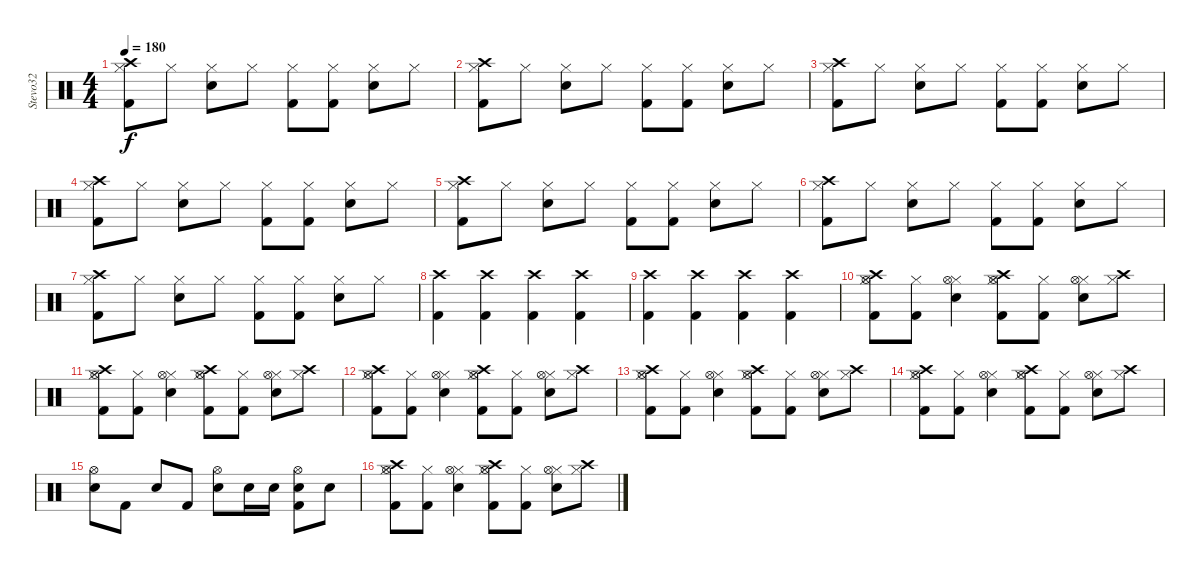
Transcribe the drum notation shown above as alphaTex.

\track ("Stevo32" "Stevo32") {instrument percussion}
\staff {score}
\articulation defaults
\ts (4 4)
\tempo 180
\clef neutral
\ks c
("Hi-Hat (closed)" "Kick (hit) 2" "Crash high (hit)").8{dy f} "Hi-Hat (closed)".8 ("Hi-Hat (closed)" "Electric Snare (hit)").8 "Hi-Hat (closed)".8 ("Hi-Hat (closed)" "Kick (hit) 2").8 ("Hi-Hat (closed)" "Kick (hit) 2").8 ("Hi-Hat (closed)" "Electric Snare (hit)").8 "Hi-Hat (closed)".8 |
("Hi-Hat (closed)" "Kick (hit) 2" "Crash high (hit)").8 "Hi-Hat (closed)".8 ("Hi-Hat (closed)" "Electric Snare (hit)").8 "Hi-Hat (closed)".8 ("Hi-Hat (closed)" "Kick (hit) 2").8 ("Hi-Hat (closed)" "Kick (hit) 2").8 ("Hi-Hat (closed)" "Electric Snare (hit)").8 "Hi-Hat (closed)".8 |
("Hi-Hat (closed)" "Kick (hit) 2" "Crash high (hit)").8 "Hi-Hat (closed)".8 ("Hi-Hat (closed)" "Electric Snare (hit)").8 "Hi-Hat (closed)".8 ("Hi-Hat (closed)" "Kick (hit) 2").8 ("Hi-Hat (closed)" "Kick (hit) 2").8 ("Hi-Hat (closed)" "Electric Snare (hit)").8 "Hi-Hat (closed)".8 |
("Hi-Hat (closed)" "Kick (hit) 2" "Crash high (hit)").8 "Hi-Hat (closed)".8 ("Hi-Hat (closed)" "Electric Snare (hit)").8 "Hi-Hat (closed)".8 ("Hi-Hat (closed)" "Kick (hit) 2").8 ("Hi-Hat (closed)" "Kick (hit) 2").8 ("Hi-Hat (closed)" "Electric Snare (hit)").8 "Hi-Hat (closed)".8 |
("Hi-Hat (closed)" "Kick (hit) 2" "Crash high (hit)").8 "Hi-Hat (closed)".8 ("Hi-Hat (closed)" "Electric Snare (hit)").8 "Hi-Hat (closed)".8 ("Hi-Hat (closed)" "Kick (hit) 2").8 ("Hi-Hat (closed)" "Kick (hit) 2").8 ("Hi-Hat (closed)" "Electric Snare (hit)").8 "Hi-Hat (closed)".8 |
("Hi-Hat (closed)" "Kick (hit) 2" "Crash high (hit)").8 "Hi-Hat (closed)".8 ("Hi-Hat (closed)" "Electric Snare (hit)").8 "Hi-Hat (closed)".8 ("Hi-Hat (closed)" "Kick (hit) 2").8 ("Hi-Hat (closed)" "Kick (hit) 2").8 ("Hi-Hat (closed)" "Electric Snare (hit)").8 "Hi-Hat (closed)".8 |
("Hi-Hat (closed)" "Kick (hit) 2" "Crash high (hit)").8 "Hi-Hat (closed)".8 ("Hi-Hat (closed)" "Electric Snare (hit)").8 "Hi-Hat (closed)".8 ("Hi-Hat (closed)" "Kick (hit) 2").8 ("Hi-Hat (closed)" "Kick (hit) 2").8 ("Hi-Hat (closed)" "Electric Snare (hit)").8 "Hi-Hat (closed)".8 |
("Kick (hit) 2" "Crash high (hit)").4 ("Kick (hit) 2" "Crash high (hit)").4 ("Kick (hit) 2" "Crash high (hit)").4 ("Kick (hit) 2" "Crash high (hit)").4 |
("Kick (hit) 2" "Crash high (hit)").4 ("Kick (hit) 2" "Crash high (hit)").4 ("Kick (hit) 2" "Crash high (hit)").4 ("Kick (hit) 2" "Crash high (hit)").4 |
("Hi-Hat (closed)" "Kick (hit) 2" "Hi-Hat (open)" "Crash high (hit)").8 ("Hi-Hat (closed)" "Kick (hit) 2").8 ("Hi-Hat (closed)" "Electric Snare (hit)" "Hi-Hat (open)").4 ("Hi-Hat (closed)" "Kick (hit) 2" "Hi-Hat (open)" "Crash high (hit)").8 ("Hi-Hat (closed)" "Kick (hit) 2").8 ("Hi-Hat (closed)" "Electric Snare (hit)" "Hi-Hat (open)").8 ("Hi-Hat (closed)" "Crash high (hit)").8 |
("Hi-Hat (closed)" "Kick (hit) 2" "Hi-Hat (open)" "Crash high (hit)").8 ("Hi-Hat (closed)" "Kick (hit) 2").8 ("Hi-Hat (closed)" "Electric Snare (hit)" "Hi-Hat (open)").4 ("Hi-Hat (closed)" "Kick (hit) 2" "Hi-Hat (open)" "Crash high (hit)").8 ("Hi-Hat (closed)" "Kick (hit) 2").8 ("Hi-Hat (closed)" "Electric Snare (hit)" "Hi-Hat (open)").8 ("Hi-Hat (closed)" "Crash high (hit)").8 |
("Hi-Hat (closed)" "Kick (hit) 2" "Hi-Hat (open)" "Crash high (hit)").8 ("Hi-Hat (closed)" "Kick (hit) 2").8 ("Hi-Hat (closed)" "Electric Snare (hit)" "Hi-Hat (open)").4 ("Hi-Hat (closed)" "Kick (hit) 2" "Hi-Hat (open)" "Crash high (hit)").8 ("Hi-Hat (closed)" "Kick (hit) 2").8 ("Hi-Hat (closed)" "Electric Snare (hit)" "Hi-Hat (open)").8 ("Hi-Hat (closed)" "Crash high (hit)").8 |
("Hi-Hat (closed)" "Kick (hit) 2" "Hi-Hat (open)" "Crash high (hit)").8 ("Hi-Hat (closed)" "Kick (hit) 2").8 ("Hi-Hat (closed)" "Electric Snare (hit)" "Hi-Hat (open)").4 ("Hi-Hat (closed)" "Kick (hit) 2" "Hi-Hat (open)" "Crash high (hit)").8 ("Hi-Hat (closed)" "Kick (hit) 2").8 ("Hi-Hat (closed)" "Electric Snare (hit)" "Hi-Hat (open)").8 ("Hi-Hat (closed)" "Crash high (hit)").8 |
("Hi-Hat (closed)" "Kick (hit) 2" "Hi-Hat (open)" "Crash high (hit)").8 ("Hi-Hat (closed)" "Kick (hit) 2").8 ("Hi-Hat (closed)" "Electric Snare (hit)" "Hi-Hat (open)").4 ("Hi-Hat (closed)" "Kick (hit) 2" "Hi-Hat (open)" "Crash high (hit)").8 ("Hi-Hat (closed)" "Kick (hit) 2").8 ("Hi-Hat (closed)" "Electric Snare (hit)" "Hi-Hat (open)").8 ("Hi-Hat (closed)" "Crash high (hit)").8 |
("Electric Snare (hit)" "Hi-Hat (open)").8 "Kick (hit) 2".8 "Electric Snare (hit)".8 "Kick (hit) 2".8 ("Electric Snare (hit)" "Hi-Hat (open)").8 "Electric Snare (hit)".16 "Electric Snare (hit)".16 ("Electric Snare (hit)" "Kick (hit) 2" "Hi-Hat (open)").8 "Electric Snare (hit)".8 |
("Hi-Hat (closed)" "Kick (hit) 2" "Hi-Hat (open)" "Crash high (hit)").8 ("Hi-Hat (closed)" "Kick (hit) 2").8 ("Hi-Hat (closed)" "Electric Snare (hit)" "Hi-Hat (open)").4 ("Hi-Hat (closed)" "Kick (hit) 2" "Hi-Hat (open)" "Crash high (hit)").8 ("Hi-Hat (closed)" "Kick (hit) 2").8 ("Hi-Hat (closed)" "Electric Snare (hit)" "Hi-Hat (open)").8 ("Hi-Hat (closed)" "Crash high (hit)").8
